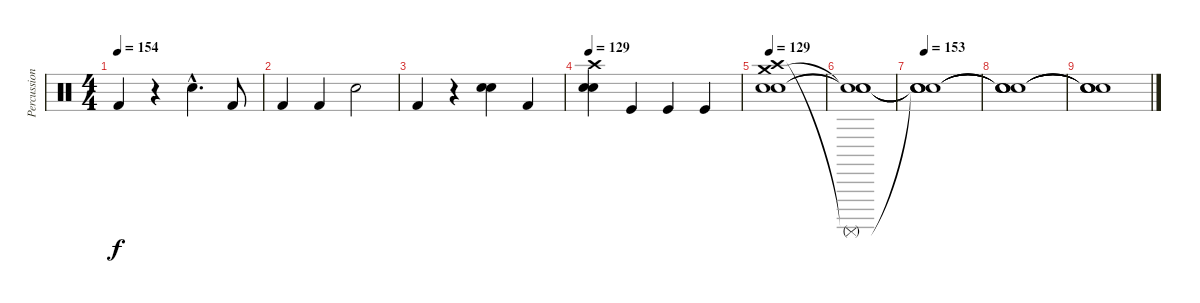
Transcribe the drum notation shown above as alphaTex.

\track ("Percussion" "Percussion") {instrument percussion}
\staff {score}
\articulation defaults
\ts (4 4)
\tempo 154
\clef neutral
\ks c "Kick (hit) 2".4{dy f}
r.4 "Snare (hit) 2"{hac}.4{d} "Kick (hit) 2".8 |
"Kick (hit) 2".4 "Kick (hit) 2".4 "Snare (hit) 2".2 |
"Kick (hit) 2".4 r.4 ("Snare (hit) 2" "Electric Snare (hit)").4 "Kick (hit) 2".4 |
\tempo 129
("Snare (hit) 2" "Electric Snare (hit)" "Crash high (hit)").4 "Kick (hit)".4 "Kick (hit)".4 "Kick (hit)".4 |
\tempo 129
("Snare (hit) 2" "Electric Snare (hit)" "Crash high (hit)" "Crash medium (hit)").1 |
("Snare (hit)"{t} "Snare (hit)"{t} "Surdo (mute)"{t} "Snare (hit)"{t}).1 |
\tempo 153
("Snare (hit)"{t} "Snare (hit)"{t} "Snare (hit)"{t} "Snare (hit)"{t}).1 |
("Snare (hit)"{t} "Snare (hit)"{t} "Snare (hit)"{t} "Snare (hit)"{t}).1 |
("Snare (hit)"{t} "Snare (hit)"{t} "Snare (hit)"{t} "Snare (hit)"{t}).1
